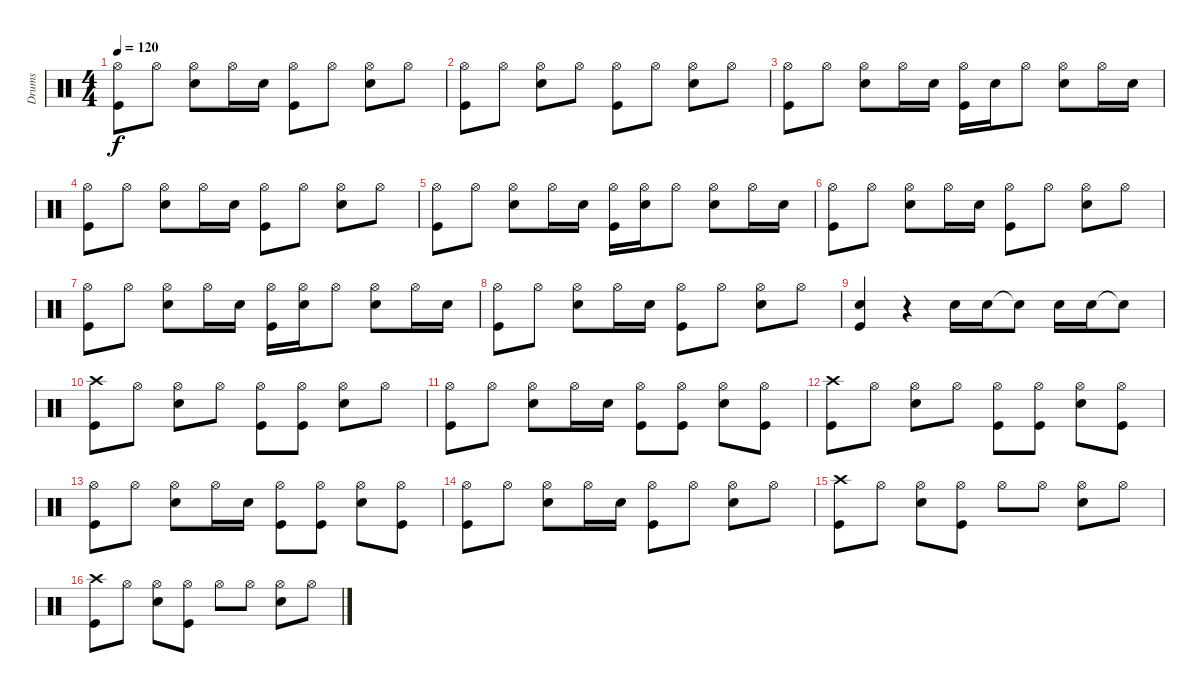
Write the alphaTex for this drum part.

\track ("Drums" "Drums") {instrument percussion}
\staff {score}
\articulation defaults
\ts (4 4)
\tempo 120
\clef neutral
\ks c
("Hi-Hat (open)" "Kick (hit)").8{dy f} "Hi-Hat (open)".8 ("Hi-Hat (open)" "Snare (hit) 2").8 "Hi-Hat (open)".16 "Snare (hit) 2".16 ("Hi-Hat (open)" "Kick (hit)").8 "Hi-Hat (open)".8 ("Hi-Hat (open)" "Snare (hit) 2").8 "Hi-Hat (open)".8 |
("Hi-Hat (open)" "Kick (hit)").8 "Hi-Hat (open)".8 ("Hi-Hat (open)" "Snare (hit) 2").8 "Hi-Hat (open)".8 ("Hi-Hat (open)" "Kick (hit)").8 "Hi-Hat (open)".8 ("Hi-Hat (open)" "Snare (hit) 2").8 "Hi-Hat (open)".8 |
("Hi-Hat (open)" "Kick (hit)").8 "Hi-Hat (open)".8 ("Hi-Hat (open)" "Snare (hit) 2").8 "Hi-Hat (open)".16 "Snare (hit) 2".16 ("Hi-Hat (open)" "Kick (hit)").16 "Snare (hit) 2".16 "Hi-Hat (open)".8 ("Hi-Hat (open)" "Snare (hit) 2").8 "Hi-Hat (open)".16 "Snare (hit) 2".16 |
("Hi-Hat (open)" "Kick (hit)").8 "Hi-Hat (open)".8 ("Hi-Hat (open)" "Snare (hit) 2").8 "Hi-Hat (open)".16 "Snare (hit) 2".16 ("Hi-Hat (open)" "Kick (hit)").8 "Hi-Hat (open)".8 ("Hi-Hat (open)" "Snare (hit) 2").8 "Hi-Hat (open)".8 |
("Hi-Hat (open)" "Kick (hit)").8 "Hi-Hat (open)".8 ("Hi-Hat (open)" "Snare (hit) 2").8 "Hi-Hat (open)".16 "Snare (hit) 2".16 ("Hi-Hat (open)" "Kick (hit)").16 ("Hi-Hat (open)" "Snare (hit) 2").16 "Hi-Hat (open)".8 ("Hi-Hat (open)" "Snare (hit) 2").8 "Hi-Hat (open)".16 "Snare (hit) 2".16 |
("Hi-Hat (open)" "Kick (hit)").8 "Hi-Hat (open)".8 ("Hi-Hat (open)" "Snare (hit) 2").8 "Hi-Hat (open)".16 "Snare (hit) 2".16 ("Hi-Hat (open)" "Kick (hit)").8 "Hi-Hat (open)".8 ("Hi-Hat (open)" "Snare (hit) 2").8 "Hi-Hat (open)".8 |
("Hi-Hat (open)" "Kick (hit)").8 "Hi-Hat (open)".8 ("Hi-Hat (open)" "Snare (hit) 2").8 "Hi-Hat (open)".16 "Snare (hit) 2".16 ("Hi-Hat (open)" "Kick (hit)").16 ("Hi-Hat (open)" "Snare (hit) 2").16 "Hi-Hat (open)".8 ("Hi-Hat (open)" "Snare (hit) 2").8 "Hi-Hat (open)".16 "Snare (hit) 2".16 |
("Hi-Hat (open)" "Kick (hit)").8 "Hi-Hat (open)".8 ("Hi-Hat (open)" "Snare (hit) 2").8 "Hi-Hat (open)".16 "Snare (hit) 2".16 ("Hi-Hat (open)" "Kick (hit)").8 "Hi-Hat (open)".8 ("Hi-Hat (open)" "Snare (hit) 2").8 "Hi-Hat (open)".8 |
("Snare (hit) 2" "Kick (hit)").4 r.4 "Snare (hit) 2".16 "Snare (hit) 2".16 "Snare (hit)"{t}.8 "Snare (hit) 2".16 "Snare (hit) 2".16 "Snare (hit)"{t}.8 |
("Crash high (hit)" "Kick (hit)").8 "Hi-Hat (open)".8 ("Hi-Hat (open)" "Snare (hit) 2").8 "Hi-Hat (open)".8 ("Hi-Hat (open)" "Kick (hit)").8 ("Hi-Hat (open)" "Kick (hit)").8 ("Hi-Hat (open)" "Snare (hit) 2").8 "Hi-Hat (open)".8 |
("Hi-Hat (open)" "Kick (hit)").8 "Hi-Hat (open)".8 ("Hi-Hat (open)" "Snare (hit) 2").8 "Hi-Hat (open)".16 "Snare (hit) 2".16 ("Hi-Hat (open)" "Kick (hit)").8 ("Hi-Hat (open)" "Kick (hit)").8 ("Hi-Hat (open)" "Snare (hit) 2").8 ("Hi-Hat (open)" "Kick (hit)").8 |
("Crash high (hit)" "Kick (hit)").8 "Hi-Hat (open)".8 ("Hi-Hat (open)" "Snare (hit) 2").8 "Hi-Hat (open)".8 ("Hi-Hat (open)" "Kick (hit)").8 ("Hi-Hat (open)" "Kick (hit)").8 ("Hi-Hat (open)" "Snare (hit) 2").8 ("Hi-Hat (open)" "Kick (hit)").8 |
("Hi-Hat (open)" "Kick (hit)").8 "Hi-Hat (open)".8 ("Hi-Hat (open)" "Snare (hit) 2").8 "Hi-Hat (open)".16 "Snare (hit) 2".16 ("Hi-Hat (open)" "Kick (hit)").8 ("Hi-Hat (open)" "Kick (hit)").8 ("Hi-Hat (open)" "Snare (hit) 2").8 ("Hi-Hat (open)" "Kick (hit)").8 |
("Hi-Hat (open)" "Kick (hit)").8 "Hi-Hat (open)".8 ("Hi-Hat (open)" "Snare (hit) 2").8 "Hi-Hat (open)".16 "Snare (hit) 2".16 ("Hi-Hat (open)" "Kick (hit)").8 "Hi-Hat (open)".8 ("Hi-Hat (open)" "Snare (hit) 2").8 "Hi-Hat (open)".8 |
("Crash high (hit)" "Kick (hit)").8 "Hi-Hat (open)".8 ("Hi-Hat (open)" "Snare (hit) 2").8 ("Hi-Hat (open)" "Kick (hit)").8 "Hi-Hat (open)".8 "Hi-Hat (open)".8 ("Hi-Hat (open)" "Snare (hit) 2").8 "Hi-Hat (open)".8 |
("Crash high (hit)" "Kick (hit)").8 "Hi-Hat (open)".8 ("Hi-Hat (open)" "Snare (hit) 2").8 ("Hi-Hat (open)" "Kick (hit)").8 "Hi-Hat (open)".8 "Hi-Hat (open)".8 ("Hi-Hat (open)" "Snare (hit) 2").8 "Hi-Hat (open)".8
